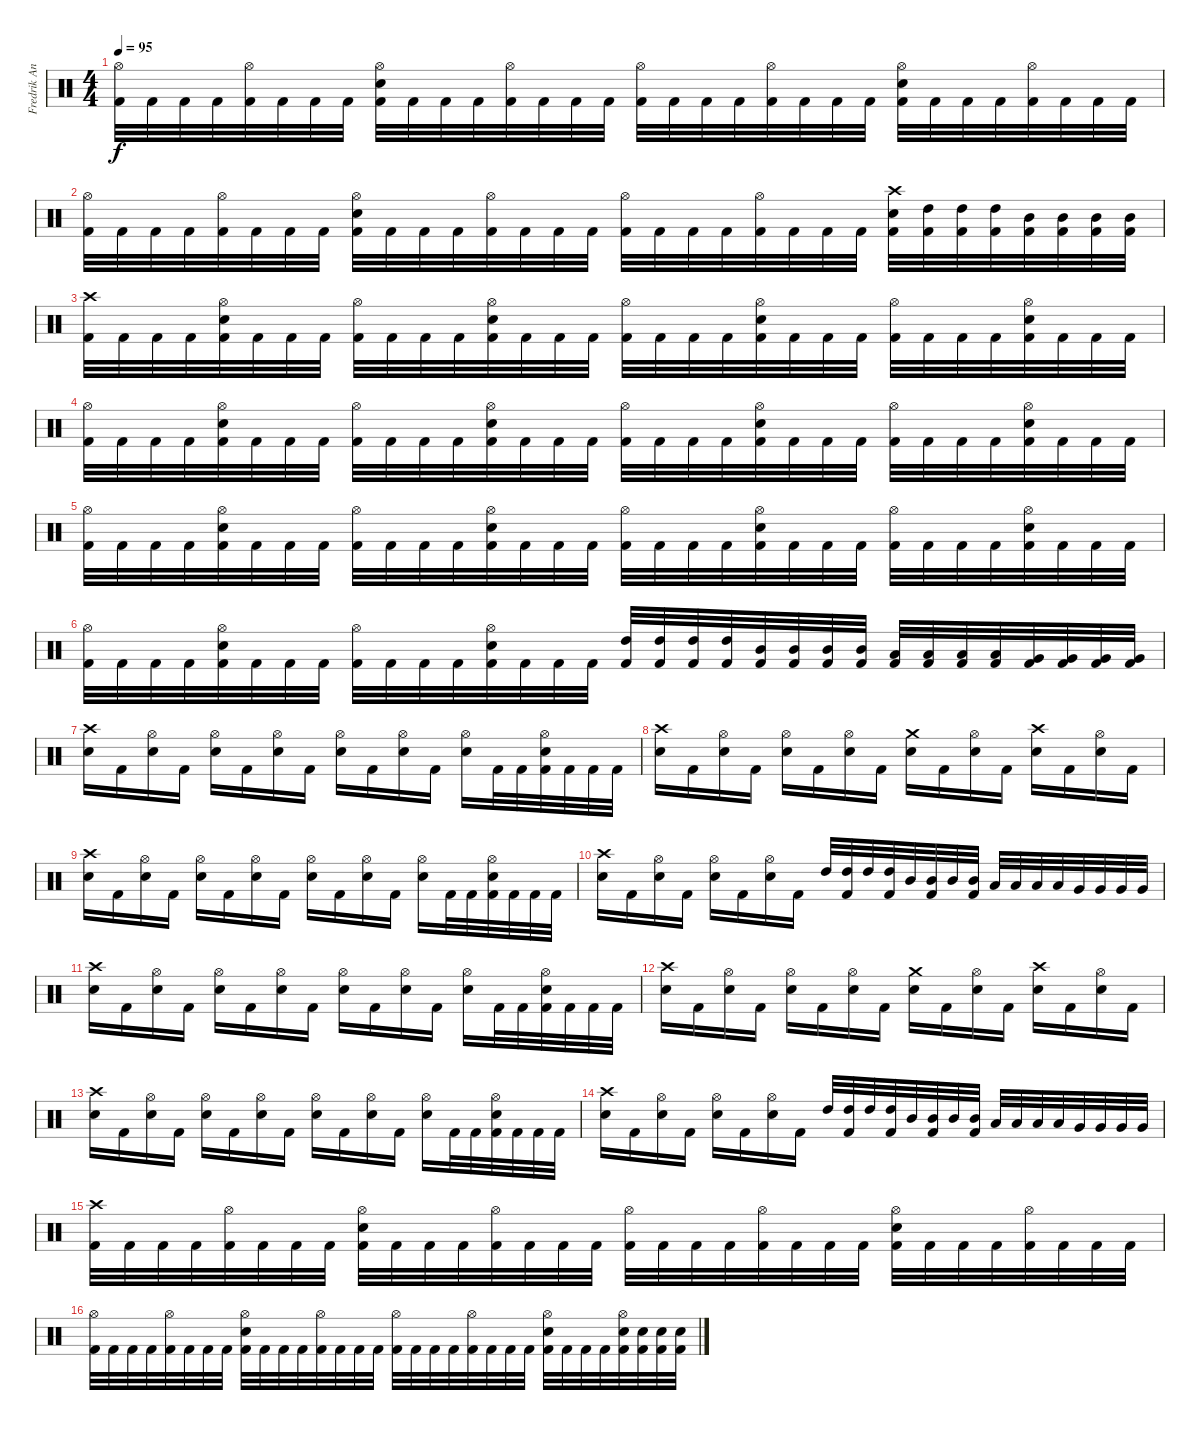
\track ("Fredrik Andersson" "Fredrik An") {instrument percussion}
\staff {score}
\articulation defaults
\ts (4 4)
\tempo 95
\clef neutral
\ks c
("Hi-Hat (open)" "Kick (hit) 2").32{dy f} "Kick (hit) 2".32 "Kick (hit) 2".32 "Kick (hit) 2".32 ("Hi-Hat (open)" "Kick (hit) 2").32 "Kick (hit) 2".32 "Kick (hit) 2".32 "Kick (hit) 2".32 ("Hi-Hat (open)" "Electric Snare (hit)" "Kick (hit) 2").32 "Kick (hit) 2".32 "Kick (hit) 2".32 "Kick (hit) 2".32 ("Hi-Hat (open)" "Kick (hit) 2").32 "Kick (hit) 2".32 "Kick (hit) 2".32 "Kick (hit) 2".32 ("Hi-Hat (open)" "Kick (hit) 2").32 "Kick (hit) 2".32 "Kick (hit) 2".32 "Kick (hit) 2".32 ("Hi-Hat (open)" "Kick (hit) 2").32 "Kick (hit) 2".32 "Kick (hit) 2".32 "Kick (hit) 2".32 ("Hi-Hat (open)" "Electric Snare (hit)" "Kick (hit) 2").32 "Kick (hit) 2".32 "Kick (hit) 2".32 "Kick (hit) 2".32 ("Hi-Hat (open)" "Kick (hit) 2").32 "Kick (hit) 2".32 "Kick (hit) 2".32 "Kick (hit) 2".32 |
("Hi-Hat (open)" "Kick (hit) 2").32 "Kick (hit) 2".32 "Kick (hit) 2".32 "Kick (hit) 2".32 ("Hi-Hat (open)" "Kick (hit) 2").32 "Kick (hit) 2".32 "Kick (hit) 2".32 "Kick (hit) 2".32 ("Hi-Hat (open)" "Electric Snare (hit)" "Kick (hit) 2").32 "Kick (hit) 2".32 "Kick (hit) 2".32 "Kick (hit) 2".32 ("Hi-Hat (open)" "Kick (hit) 2").32 "Kick (hit) 2".32 "Kick (hit) 2".32 "Kick (hit) 2".32 ("Hi-Hat (open)" "Kick (hit) 2").32 "Kick (hit) 2".32 "Kick (hit) 2".32 "Kick (hit) 2".32 ("Hi-Hat (open)" "Kick (hit) 2").32 "Kick (hit) 2".32 "Kick (hit) 2".32 "Kick (hit) 2".32 ("Crash high (hit)" "Electric Snare (hit)" "Kick (hit) 2").32 ("High Tom (hit)" "Kick (hit) 2").32 ("High Tom (hit)" "Kick (hit) 2").32 ("High Tom (hit)" "Kick (hit) 2").32 ("Mid Tom (hit)" "Kick (hit) 2").32 ("Mid Tom (hit)" "Kick (hit) 2").32 ("Mid Tom (hit)" "Kick (hit) 2").32 ("Mid Tom (hit)" "Kick (hit) 2").32 |
("Crash high (hit)" "Kick (hit) 2").32 "Kick (hit) 2".32 "Kick (hit) 2".32 "Kick (hit) 2".32 ("Hi-Hat (open)" "Electric Snare (hit)" "Kick (hit) 2").32 "Kick (hit) 2".32 "Kick (hit) 2".32 "Kick (hit) 2".32 ("Hi-Hat (open)" "Kick (hit) 2").32 "Kick (hit) 2".32 "Kick (hit) 2".32 "Kick (hit) 2".32 ("Hi-Hat (open)" "Electric Snare (hit)" "Kick (hit) 2").32 "Kick (hit) 2".32 "Kick (hit) 2".32 "Kick (hit) 2".32 ("Hi-Hat (open)" "Kick (hit) 2").32 "Kick (hit) 2".32 "Kick (hit) 2".32 "Kick (hit) 2".32 ("Hi-Hat (open)" "Electric Snare (hit)" "Kick (hit) 2").32 "Kick (hit) 2".32 "Kick (hit) 2".32 "Kick (hit) 2".32 ("Hi-Hat (open)" "Kick (hit) 2").32 "Kick (hit) 2".32 "Kick (hit) 2".32 "Kick (hit) 2".32 ("Hi-Hat (open)" "Electric Snare (hit)" "Kick (hit) 2").32 "Kick (hit) 2".32 "Kick (hit) 2".32 "Kick (hit) 2".32 |
("Hi-Hat (open)" "Kick (hit) 2").32 "Kick (hit) 2".32 "Kick (hit) 2".32 "Kick (hit) 2".32 ("Hi-Hat (open)" "Electric Snare (hit)" "Kick (hit) 2").32 "Kick (hit) 2".32 "Kick (hit) 2".32 "Kick (hit) 2".32 ("Hi-Hat (open)" "Kick (hit) 2").32 "Kick (hit) 2".32 "Kick (hit) 2".32 "Kick (hit) 2".32 ("Hi-Hat (open)" "Electric Snare (hit)" "Kick (hit) 2").32 "Kick (hit) 2".32 "Kick (hit) 2".32 "Kick (hit) 2".32 ("Hi-Hat (open)" "Kick (hit) 2").32 "Kick (hit) 2".32 "Kick (hit) 2".32 "Kick (hit) 2".32 ("Hi-Hat (open)" "Electric Snare (hit)" "Kick (hit) 2").32 "Kick (hit) 2".32 "Kick (hit) 2".32 "Kick (hit) 2".32 ("Hi-Hat (open)" "Kick (hit) 2").32 "Kick (hit) 2".32 "Kick (hit) 2".32 "Kick (hit) 2".32 ("Hi-Hat (open)" "Electric Snare (hit)" "Kick (hit) 2").32 "Kick (hit) 2".32 "Kick (hit) 2".32 "Kick (hit) 2".32 |
("Hi-Hat (open)" "Kick (hit) 2").32 "Kick (hit) 2".32 "Kick (hit) 2".32 "Kick (hit) 2".32 ("Hi-Hat (open)" "Electric Snare (hit)" "Kick (hit) 2").32 "Kick (hit) 2".32 "Kick (hit) 2".32 "Kick (hit) 2".32 ("Hi-Hat (open)" "Kick (hit) 2").32 "Kick (hit) 2".32 "Kick (hit) 2".32 "Kick (hit) 2".32 ("Hi-Hat (open)" "Electric Snare (hit)" "Kick (hit) 2").32 "Kick (hit) 2".32 "Kick (hit) 2".32 "Kick (hit) 2".32 ("Hi-Hat (open)" "Kick (hit) 2").32 "Kick (hit) 2".32 "Kick (hit) 2".32 "Kick (hit) 2".32 ("Hi-Hat (open)" "Electric Snare (hit)" "Kick (hit) 2").32 "Kick (hit) 2".32 "Kick (hit) 2".32 "Kick (hit) 2".32 ("Hi-Hat (open)" "Kick (hit) 2").32 "Kick (hit) 2".32 "Kick (hit) 2".32 "Kick (hit) 2".32 ("Hi-Hat (open)" "Electric Snare (hit)" "Kick (hit) 2").32 "Kick (hit) 2".32 "Kick (hit) 2".32 "Kick (hit) 2".32 |
("Hi-Hat (open)" "Kick (hit) 2").32 "Kick (hit) 2".32 "Kick (hit) 2".32 "Kick (hit) 2".32 ("Hi-Hat (open)" "Electric Snare (hit)" "Kick (hit) 2").32 "Kick (hit) 2".32 "Kick (hit) 2".32 "Kick (hit) 2".32 ("Hi-Hat (open)" "Kick (hit) 2").32 "Kick (hit) 2".32 "Kick (hit) 2".32 "Kick (hit) 2".32 ("Hi-Hat (open)" "Electric Snare (hit)" "Kick (hit) 2").32 "Kick (hit) 2".32 "Kick (hit) 2".32 "Kick (hit) 2".32 ("High Tom (hit)" "Kick (hit) 2").32 ("High Tom (hit)" "Kick (hit) 2").32 ("High Tom (hit)" "Kick (hit) 2").32 ("High Tom (hit)" "Kick (hit) 2").32 ("Mid Tom (hit)" "Kick (hit) 2").32 ("Mid Tom (hit)" "Kick (hit) 2").32 ("Mid Tom (hit)" "Kick (hit) 2").32 ("Mid Tom (hit)" "Kick (hit) 2").32 ("Low Tom (hit)" "Kick (hit) 2").32 ("Low Tom (hit)" "Kick (hit) 2").32 ("Low Tom (hit)" "Kick (hit) 2").32 ("Low Tom (hit)" "Kick (hit) 2").32 ("Very Low Tom (hit)" "Kick (hit) 2").32 ("Very Low Tom (hit)" "Kick (hit) 2").32 ("Very Low Tom (hit)" "Kick (hit) 2").32 ("Very Low Tom (hit)" "Kick (hit) 2").32 |
("Crash high (hit)" "Electric Snare (hit)").16 "Kick (hit) 2".16 ("Hi-Hat (open)" "Electric Snare (hit)").16 "Kick (hit) 2".16 ("Hi-Hat (open)" "Electric Snare (hit)").16 "Kick (hit) 2".16 ("Hi-Hat (open)" "Electric Snare (hit)").16 "Kick (hit) 2".16 ("Hi-Hat (open)" "Electric Snare (hit)").16 "Kick (hit) 2".16 ("Hi-Hat (open)" "Electric Snare (hit)").16 "Kick (hit) 2".16 ("Hi-Hat (open)" "Electric Snare (hit)").16 "Kick (hit) 2".32 "Kick (hit) 2".32 ("Hi-Hat (open)" "Electric Snare (hit)" "Kick (hit) 2").32 "Kick (hit) 2".32 "Kick (hit) 2".32 "Kick (hit) 2".32 |
("Crash high (hit)" "Electric Snare (hit)").16 "Kick (hit) 2".16 ("Hi-Hat (open)" "Electric Snare (hit)").16 "Kick (hit) 2".16 ("Hi-Hat (open)" "Electric Snare (hit)").16 "Kick (hit) 2".16 ("Hi-Hat (open)" "Electric Snare (hit)").16 "Kick (hit) 2".16 ("Crash medium (hit)" "Electric Snare (hit)").16 "Kick (hit) 2".16 ("Hi-Hat (open)" "Electric Snare (hit)").16 "Kick (hit) 2".16 ("Crash high (hit)" "Electric Snare (hit)").16 "Kick (hit) 2".16 ("Hi-Hat (open)" "Electric Snare (hit)").16 "Kick (hit) 2".16 |
("Crash high (hit)" "Electric Snare (hit)").16 "Kick (hit) 2".16 ("Hi-Hat (open)" "Electric Snare (hit)").16 "Kick (hit) 2".16 ("Hi-Hat (open)" "Electric Snare (hit)").16 "Kick (hit) 2".16 ("Hi-Hat (open)" "Electric Snare (hit)").16 "Kick (hit) 2".16 ("Hi-Hat (open)" "Electric Snare (hit)").16 "Kick (hit) 2".16 ("Hi-Hat (open)" "Electric Snare (hit)").16 "Kick (hit) 2".16 ("Hi-Hat (open)" "Electric Snare (hit)").16 "Kick (hit) 2".32 "Kick (hit) 2".32 ("Hi-Hat (open)" "Electric Snare (hit)" "Kick (hit) 2").32 "Kick (hit) 2".32 "Kick (hit) 2".32 "Kick (hit) 2".32 |
("Crash high (hit)" "Electric Snare (hit)").16 "Kick (hit) 2".16 ("Hi-Hat (open)" "Electric Snare (hit)").16 "Kick (hit) 2".16 ("Hi-Hat (open)" "Electric Snare (hit)").16 "Kick (hit) 2".16 ("Hi-Hat (open)" "Electric Snare (hit)").16 "Kick (hit) 2".16 "High Tom (hit)".32 ("High Tom (hit)" "Kick (hit) 2").32 "High Tom (hit)".32 ("High Tom (hit)" "Kick (hit) 2").32 "Mid Tom (hit)".32 ("Mid Tom (hit)" "Kick (hit) 2").32 "Mid Tom (hit)".32 ("Mid Tom (hit)" "Kick (hit) 2").32 "Low Tom (hit)".32 "Low Tom (hit)".32 "Low Tom (hit)".32 "Low Tom (hit)".32 "Very Low Tom (hit)".32 "Very Low Tom (hit)".32 "Very Low Tom (hit)".32 "Very Low Tom (hit)".32 |
("Crash high (hit)" "Electric Snare (hit)").16 "Kick (hit) 2".16 ("Hi-Hat (open)" "Electric Snare (hit)").16 "Kick (hit) 2".16 ("Hi-Hat (open)" "Electric Snare (hit)").16 "Kick (hit) 2".16 ("Hi-Hat (open)" "Electric Snare (hit)").16 "Kick (hit) 2".16 ("Hi-Hat (open)" "Electric Snare (hit)").16 "Kick (hit) 2".16 ("Hi-Hat (open)" "Electric Snare (hit)").16 "Kick (hit) 2".16 ("Hi-Hat (open)" "Electric Snare (hit)").16 "Kick (hit) 2".32 "Kick (hit) 2".32 ("Hi-Hat (open)" "Electric Snare (hit)" "Kick (hit) 2").32 "Kick (hit) 2".32 "Kick (hit) 2".32 "Kick (hit) 2".32 |
("Crash high (hit)" "Electric Snare (hit)").16 "Kick (hit) 2".16 ("Hi-Hat (open)" "Electric Snare (hit)").16 "Kick (hit) 2".16 ("Hi-Hat (open)" "Electric Snare (hit)").16 "Kick (hit) 2".16 ("Hi-Hat (open)" "Electric Snare (hit)").16 "Kick (hit) 2".16 ("Crash medium (hit)" "Electric Snare (hit)").16 "Kick (hit) 2".16 ("Hi-Hat (open)" "Electric Snare (hit)").16 "Kick (hit) 2".16 ("Crash high (hit)" "Electric Snare (hit)").16 "Kick (hit) 2".16 ("Hi-Hat (open)" "Electric Snare (hit)").16 "Kick (hit) 2".16 |
("Crash high (hit)" "Electric Snare (hit)").16 "Kick (hit) 2".16 ("Hi-Hat (open)" "Electric Snare (hit)").16 "Kick (hit) 2".16 ("Hi-Hat (open)" "Electric Snare (hit)").16 "Kick (hit) 2".16 ("Hi-Hat (open)" "Electric Snare (hit)").16 "Kick (hit) 2".16 ("Hi-Hat (open)" "Electric Snare (hit)").16 "Kick (hit) 2".16 ("Hi-Hat (open)" "Electric Snare (hit)").16 "Kick (hit) 2".16 ("Hi-Hat (open)" "Electric Snare (hit)").16 "Kick (hit) 2".32 "Kick (hit) 2".32 ("Hi-Hat (open)" "Electric Snare (hit)" "Kick (hit) 2").32 "Kick (hit) 2".32 "Kick (hit) 2".32 "Kick (hit) 2".32 |
("Crash high (hit)" "Electric Snare (hit)").16 "Kick (hit) 2".16 ("Hi-Hat (open)" "Electric Snare (hit)").16 "Kick (hit) 2".16 ("Hi-Hat (open)" "Electric Snare (hit)").16 "Kick (hit) 2".16 ("Hi-Hat (open)" "Electric Snare (hit)").16 "Kick (hit) 2".16 "High Tom (hit)".32 ("High Tom (hit)" "Kick (hit) 2").32 "High Tom (hit)".32 ("High Tom (hit)" "Kick (hit) 2").32 "Mid Tom (hit)".32 ("Mid Tom (hit)" "Kick (hit) 2").32 "Mid Tom (hit)".32 ("Mid Tom (hit)" "Kick (hit) 2").32 "Low Tom (hit)".32 "Low Tom (hit)".32 "Low Tom (hit)".32 "Low Tom (hit)".32 "Very Low Tom (hit)".32 "Very Low Tom (hit)".32 "Very Low Tom (hit)".32 "Very Low Tom (hit)".32 |
("Crash high (hit)" "Kick (hit) 2").32 "Kick (hit) 2".32 "Kick (hit) 2".32 "Kick (hit) 2".32 ("Hi-Hat (open)" "Kick (hit) 2").32 "Kick (hit) 2".32 "Kick (hit) 2".32 "Kick (hit) 2".32 ("Hi-Hat (open)" "Electric Snare (hit)" "Kick (hit) 2").32 "Kick (hit) 2".32 "Kick (hit) 2".32 "Kick (hit) 2".32 ("Hi-Hat (open)" "Kick (hit) 2").32 "Kick (hit) 2".32 "Kick (hit) 2".32 "Kick (hit) 2".32 ("Hi-Hat (open)" "Kick (hit) 2").32 "Kick (hit) 2".32 "Kick (hit) 2".32 "Kick (hit) 2".32 ("Hi-Hat (open)" "Kick (hit) 2").32 "Kick (hit) 2".32 "Kick (hit) 2".32 "Kick (hit) 2".32 ("Hi-Hat (open)" "Electric Snare (hit)" "Kick (hit) 2").32 "Kick (hit) 2".32 "Kick (hit) 2".32 "Kick (hit) 2".32 ("Hi-Hat (open)" "Kick (hit) 2").32 "Kick (hit) 2".32 "Kick (hit) 2".32 "Kick (hit) 2".32 |
("Hi-Hat (open)" "Kick (hit) 2").32 "Kick (hit) 2".32 "Kick (hit) 2".32 "Kick (hit) 2".32 ("Hi-Hat (open)" "Kick (hit) 2").32 "Kick (hit) 2".32 "Kick (hit) 2".32 "Kick (hit) 2".32 ("Hi-Hat (open)" "Electric Snare (hit)" "Kick (hit) 2").32 "Kick (hit) 2".32 "Kick (hit) 2".32 "Kick (hit) 2".32 ("Hi-Hat (open)" "Kick (hit) 2").32 "Kick (hit) 2".32 "Kick (hit) 2".32 "Kick (hit) 2".32 ("Hi-Hat (open)" "Kick (hit) 2").32 "Kick (hit) 2".32 "Kick (hit) 2".32 "Kick (hit) 2".32 ("Hi-Hat (open)" "Kick (hit) 2").32 "Kick (hit) 2".32 "Kick (hit) 2".32 "Kick (hit) 2".32 ("Hi-Hat (open)" "Electric Snare (hit)" "Kick (hit) 2").32 "Kick (hit) 2".32 "Kick (hit) 2".32 "Kick (hit) 2".32 ("Hi-Hat (open)" "Electric Snare (hit)" "Kick (hit) 2").32 ("Electric Snare (hit)" "Kick (hit) 2").32 ("Electric Snare (hit)" "Kick (hit) 2").32 ("Electric Snare (hit)" "Kick (hit) 2").32
